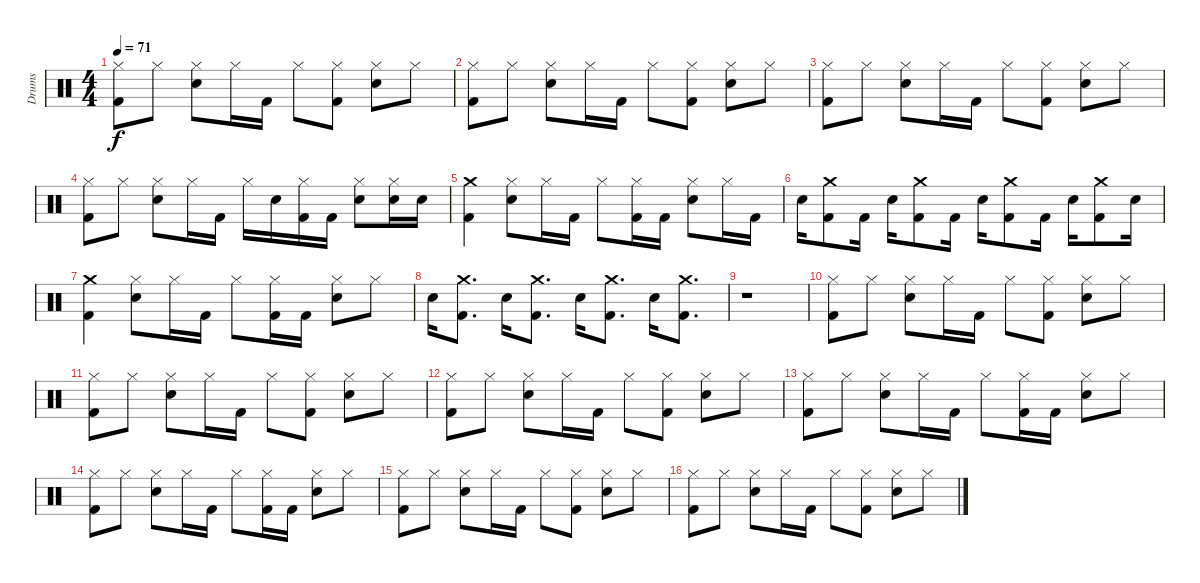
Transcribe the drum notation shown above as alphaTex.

\track ("Drums" "Drums") {instrument percussion}
\staff {score}
\articulation defaults
\ts (4 4)
\tempo 71
\clef neutral
\ks c
("Hi-Hat (closed)" "Kick (hit) 2").8{dy f} "Hi-Hat (closed)".8 ("Hi-Hat (closed)" "Snare (hit) 2").8 "Hi-Hat (closed)".16 "Kick (hit) 2".16 "Hi-Hat (closed)".8 ("Kick (hit) 2" "Hi-Hat (closed)").8 ("Hi-Hat (closed)" "Snare (hit) 2").8 "Hi-Hat (closed)".8 |
("Hi-Hat (closed)" "Kick (hit) 2").8 "Hi-Hat (closed)".8 ("Hi-Hat (closed)" "Snare (hit) 2").8 "Hi-Hat (closed)".16 "Kick (hit) 2".16 "Hi-Hat (closed)".8 ("Kick (hit) 2" "Hi-Hat (closed)").8 ("Hi-Hat (closed)" "Snare (hit) 2").8 "Hi-Hat (closed)".8 |
("Kick (hit) 2" "Hi-Hat (closed)").8 "Hi-Hat (closed)".8 ("Hi-Hat (closed)" "Snare (hit) 2").8 "Hi-Hat (closed)".16 "Kick (hit) 2".16 "Hi-Hat (closed)".8 ("Kick (hit) 2" "Hi-Hat (closed)").8 ("Snare (hit) 2" "Hi-Hat (closed)").8 "Hi-Hat (closed)".8 |
("Hi-Hat (closed)" "Kick (hit) 2").8 "Hi-Hat (closed)".8 ("Hi-Hat (closed)" "Snare (hit) 2").8 "Hi-Hat (closed)".16 "Kick (hit) 2".16 "Hi-Hat (closed)".16 "Snare (hit) 2".16 ("Hi-Hat (closed)" "Kick (hit) 2").16 "Kick (hit) 2".16 ("Snare (hit) 2" "Hi-Hat (closed)").8 ("Hi-Hat (closed)" "Snare (hit) 2").16 "Snare (hit) 2".16 |
("Crash medium (hit)" "Kick (hit) 2").4 ("Snare (hit) 2" "Hi-Hat (closed)").8 "Hi-Hat (closed)".16 "Kick (hit) 2".16 "Hi-Hat (closed)".8 ("Hi-Hat (closed)" "Kick (hit) 2").16 "Kick (hit) 2".16 ("Hi-Hat (closed)" "Snare (hit) 2").8 "Hi-Hat (closed)".16 "Kick (hit) 2".16 |
"Snare (hit) 2".16 ("Crash medium (hit)" "Kick (hit) 2").8 "Kick (hit) 2".16 "Snare (hit) 2".16 ("Crash medium (hit)" "Kick (hit) 2").8 "Kick (hit) 2".16 "Snare (hit) 2".16 ("Crash medium (hit)" "Kick (hit) 2").8 "Kick (hit) 2".16 "Snare (hit) 2".16 ("Crash medium (hit)" "Kick (hit) 2").8 "Snare (hit) 2".16 |
("Crash medium (hit)" "Kick (hit) 2").4 ("Hi-Hat (closed)" "Snare (hit) 2").8 "Hi-Hat (closed)".16 "Kick (hit) 2".16 "Hi-Hat (closed)".8 ("Kick (hit) 2" "Hi-Hat (closed)").16 "Kick (hit) 2".16 ("Hi-Hat (closed)" "Snare (hit) 2").8 "Hi-Hat (closed)".8 |
"Snare (hit) 2".16 ("Crash medium (hit)" "Kick (hit) 2").8{d} "Snare (hit) 2".16 ("Crash medium (hit)" "Kick (hit) 2").8{d} "Snare (hit) 2".16 ("Crash medium (hit)" "Kick (hit) 2").8{d} "Snare (hit) 2".16 ("Crash medium (hit)" "Kick (hit) 2").8{d} |
r.1 |
("Hi-Hat (closed)" "Kick (hit) 2").8 "Hi-Hat (closed)".8 ("Hi-Hat (closed)" "Snare (hit) 2").8 "Hi-Hat (closed)".16 "Kick (hit) 2".16 "Hi-Hat (closed)".8 ("Kick (hit) 2" "Hi-Hat (closed)").8 ("Hi-Hat (closed)" "Snare (hit) 2").8 "Hi-Hat (closed)".8 |
("Hi-Hat (closed)" "Kick (hit) 2").8 "Hi-Hat (closed)".8 ("Hi-Hat (closed)" "Snare (hit) 2").8 "Hi-Hat (closed)".16 "Kick (hit) 2".16 "Hi-Hat (closed)".8 ("Kick (hit) 2" "Hi-Hat (closed)").8 ("Hi-Hat (closed)" "Snare (hit) 2").8 "Hi-Hat (closed)".8 |
("Hi-Hat (closed)" "Kick (hit) 2").8 "Hi-Hat (closed)".8 ("Hi-Hat (closed)" "Snare (hit) 2").8 "Hi-Hat (closed)".16 "Kick (hit) 2".16 "Hi-Hat (closed)".8 ("Kick (hit) 2" "Hi-Hat (closed)").8 ("Hi-Hat (closed)" "Snare (hit) 2").8 "Hi-Hat (closed)".8 |
("Hi-Hat (closed)" "Kick (hit) 2").8 "Hi-Hat (closed)".8 ("Hi-Hat (closed)" "Snare (hit) 2").8 "Hi-Hat (closed)".16 "Kick (hit) 2".16 "Hi-Hat (closed)".8 ("Kick (hit) 2" "Hi-Hat (closed)").16 "Kick (hit) 2".16 ("Hi-Hat (closed)" "Snare (hit) 2").8 "Hi-Hat (closed)".8 |
("Hi-Hat (closed)" "Kick (hit) 2").8 "Hi-Hat (closed)".8 ("Hi-Hat (closed)" "Snare (hit) 2").8 "Hi-Hat (closed)".16 "Kick (hit) 2".16 "Hi-Hat (closed)".8 ("Kick (hit) 2" "Hi-Hat (closed)").16 "Kick (hit) 2".16 ("Hi-Hat (closed)" "Snare (hit) 2").8 "Hi-Hat (closed)".8 |
("Hi-Hat (closed)" "Kick (hit) 2").8 "Hi-Hat (closed)".8 ("Hi-Hat (closed)" "Snare (hit) 2").8 "Hi-Hat (closed)".16 "Kick (hit) 2".16 "Hi-Hat (closed)".8 ("Kick (hit) 2" "Hi-Hat (closed)").8 ("Hi-Hat (closed)" "Snare (hit) 2").8 "Hi-Hat (closed)".8 |
("Hi-Hat (closed)" "Kick (hit) 2").8 "Hi-Hat (closed)".8 ("Hi-Hat (closed)" "Snare (hit) 2").8 "Hi-Hat (closed)".16 "Kick (hit) 2".16 "Hi-Hat (closed)".8 ("Kick (hit) 2" "Hi-Hat (closed)").8 ("Hi-Hat (closed)" "Snare (hit) 2").8 "Hi-Hat (closed)".8
